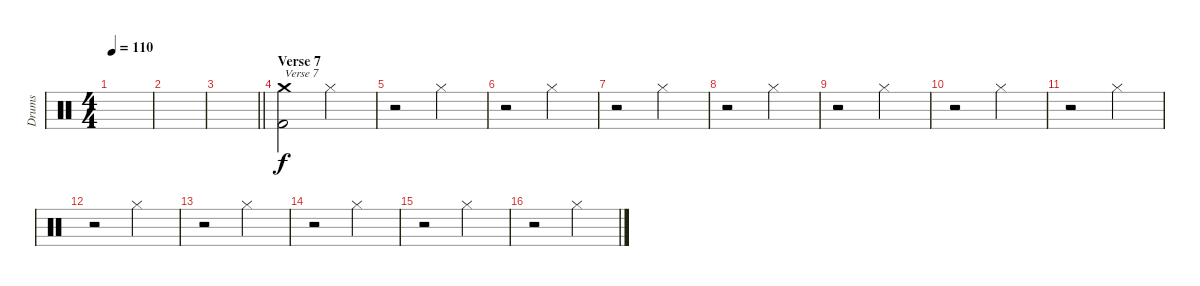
\track ("Drums" "Drums") {instrument percussion}
\staff {score}
\articulation defaults
\ts (4 4)
\tempo 110
\clef neutral
\ks c
|
|
\barLineRight lightlight
|
\section ("" "Verse 7")
("Kick (hit) 2" "Crash medium (hit)").2{txt "Verse 7"} "Hi-Hat (closed)".2 |
r.2 "Hi-Hat (closed)".2 |
r.2 "Hi-Hat (closed)".2 |
r.2 "Hi-Hat (closed)".2 |
r.2 "Hi-Hat (closed)".2 |
r.2 "Hi-Hat (closed)".2 |
r.2 "Hi-Hat (closed)".2 |
r.2 "Hi-Hat (closed)".2 |
r.2 "Hi-Hat (closed)".2 |
r.2 "Hi-Hat (closed)".2 |
r.2 "Hi-Hat (closed)".2 |
r.2 "Hi-Hat (closed)".2 |
r.2 "Hi-Hat (closed)".2
